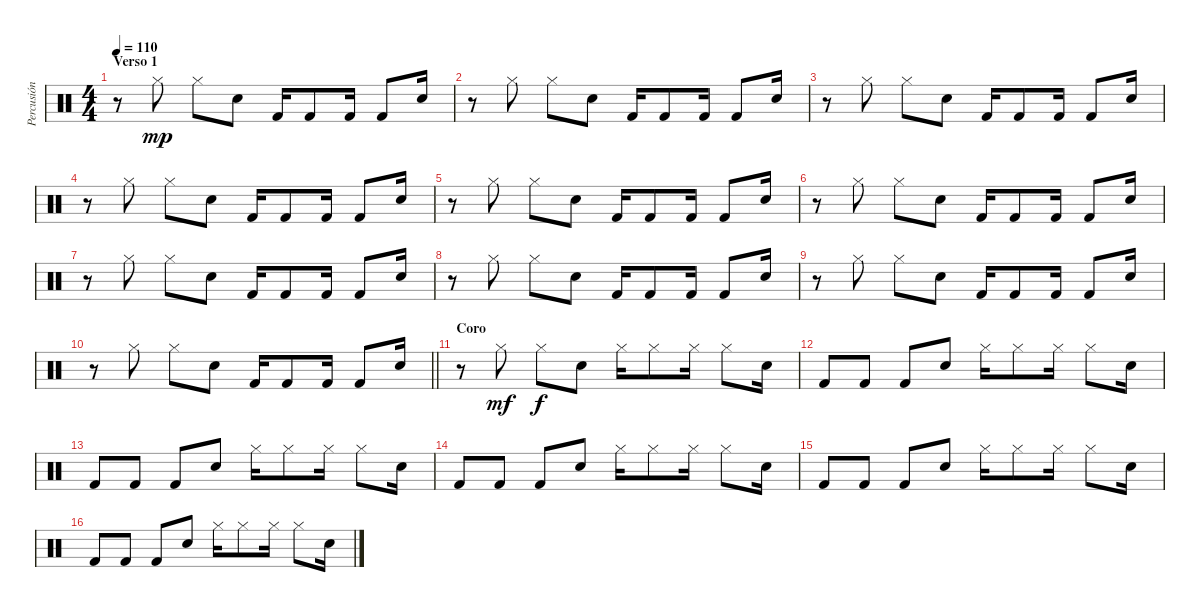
\track ("Percusión" "Percusión") {instrument percussion}
\staff {score}
\articulation defaults
\ts (4 4)
\section ("" "Verso 1")
\tempo 110
\clef neutral
\ks c
r.8{dy f} "Hi-Hat (closed)".8{dy mp} "Hi-Hat (closed)".8 "Snare (hit) 2".8 "Kick (hit) 2".16 "Kick (hit) 2".8 "Kick (hit) 2".16 "Kick (hit) 2".8 "Snare (hit) 2".16 |
r.8 "Hi-Hat (closed)".8 "Hi-Hat (closed)".8 "Snare (hit) 2".8 "Kick (hit) 2".16 "Kick (hit) 2".8 "Kick (hit) 2".16 "Kick (hit) 2".8 "Snare (hit) 2".16 |
r.8 "Hi-Hat (closed)".8 "Hi-Hat (closed)".8 "Snare (hit) 2".8 "Kick (hit) 2".16 "Kick (hit) 2".8 "Kick (hit) 2".16 "Kick (hit) 2".8 "Snare (hit) 2".16 |
r.8 "Hi-Hat (closed)".8 "Hi-Hat (closed)".8 "Snare (hit) 2".8 "Kick (hit) 2".16 "Kick (hit) 2".8 "Kick (hit) 2".16 "Kick (hit) 2".8 "Snare (hit) 2".16 |
r.8 "Hi-Hat (closed)".8 "Hi-Hat (closed)".8 "Snare (hit) 2".8 "Kick (hit) 2".16 "Kick (hit) 2".8 "Kick (hit) 2".16 "Kick (hit) 2".8 "Snare (hit) 2".16 |
r.8 "Hi-Hat (closed)".8 "Hi-Hat (closed)".8 "Snare (hit) 2".8 "Kick (hit) 2".16 "Kick (hit) 2".8 "Kick (hit) 2".16 "Kick (hit) 2".8 "Snare (hit) 2".16 |
r.8 "Hi-Hat (closed)".8 "Hi-Hat (closed)".8 "Snare (hit) 2".8 "Kick (hit) 2".16 "Kick (hit) 2".8 "Kick (hit) 2".16 "Kick (hit) 2".8 "Snare (hit) 2".16 |
r.8 "Hi-Hat (closed)".8 "Hi-Hat (closed)".8 "Snare (hit) 2".8 "Kick (hit) 2".16 "Kick (hit) 2".8 "Kick (hit) 2".16 "Kick (hit) 2".8 "Snare (hit) 2".16 |
r.8 "Hi-Hat (closed)".8 "Hi-Hat (closed)".8 "Snare (hit) 2".8 "Kick (hit) 2".16 "Kick (hit) 2".8 "Kick (hit) 2".16 "Kick (hit) 2".8 "Snare (hit) 2".16 |
\barLineRight lightlight
r.8 "Hi-Hat (closed)".8 "Hi-Hat (closed)".8 "Snare (hit) 2".8 "Kick (hit) 2".16 "Kick (hit) 2".8 "Kick (hit) 2".16 "Kick (hit) 2".8 "Snare (hit) 2".16 |
\section ("" "Coro")
r.8 "Hi-Hat (closed)".8{dy mf} "Hi-Hat (closed)".8{dy f} "Snare (hit) 2".8 "Hi-Hat (closed)".16 "Hi-Hat (closed)".8 "Hi-Hat (closed)".16 "Hi-Hat (closed)".8 "Snare (hit) 2".16 |
"Kick (hit) 2".8 "Kick (hit) 2".8 "Kick (hit) 2".8 "Snare (hit) 2".8 "Hi-Hat (closed)".16 "Hi-Hat (closed)".8 "Hi-Hat (closed)".16 "Hi-Hat (closed)".8 "Snare (hit) 2".16 |
"Kick (hit) 2".8 "Kick (hit) 2".8 "Kick (hit) 2".8 "Snare (hit) 2".8 "Hi-Hat (closed)".16 "Hi-Hat (closed)".8 "Hi-Hat (closed)".16 "Hi-Hat (closed)".8 "Snare (hit) 2".16 |
"Kick (hit) 2".8 "Kick (hit) 2".8 "Kick (hit) 2".8 "Snare (hit) 2".8 "Hi-Hat (closed)".16 "Hi-Hat (closed)".8 "Hi-Hat (closed)".16 "Hi-Hat (closed)".8 "Snare (hit) 2".16 |
"Kick (hit) 2".8 "Kick (hit) 2".8 "Kick (hit) 2".8 "Snare (hit) 2".8 "Hi-Hat (closed)".16 "Hi-Hat (closed)".8 "Hi-Hat (closed)".16 "Hi-Hat (closed)".8 "Snare (hit) 2".16 |
"Kick (hit) 2".8 "Kick (hit) 2".8 "Kick (hit) 2".8 "Snare (hit) 2".8 "Hi-Hat (closed)".16 "Hi-Hat (closed)".8 "Hi-Hat (closed)".16 "Hi-Hat (closed)".8 "Snare (hit) 2".16
